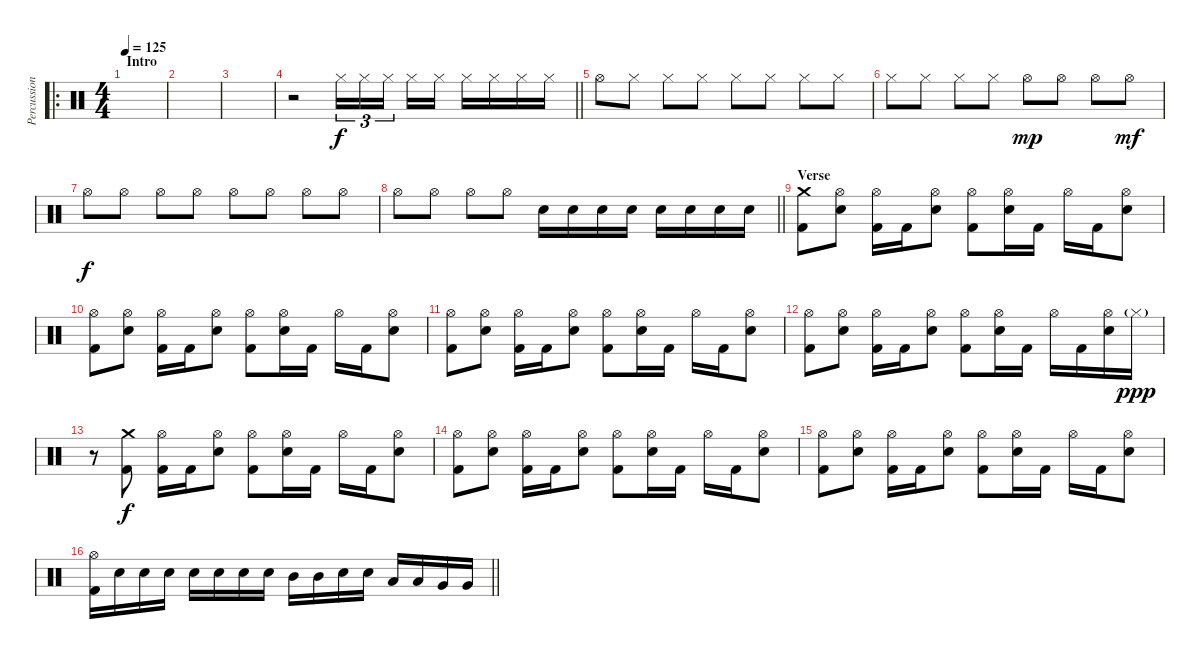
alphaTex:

\track ("Percussion" "Percussion") {instrument percussion}
\staff {score}
\articulation defaults
\ro
\ts (4 4)
\section ("" "Intro")
\tempo 125
\clef neutral
\ks c
|
|
|
\barLineRight lightlight
r.2 "Hi-Hat (closed)".16{tu (3 2)} "Hi-Hat (closed)".16{tu (3 2)} "Hi-Hat (closed)".16{tu (3 2) beam splitsecondary} "Hi-Hat (closed)".16 "Hi-Hat (closed)".16 "Hi-Hat (closed)".16 "Hi-Hat (closed)".16 "Hi-Hat (closed)".16 "Hi-Hat (closed)".16 |
"Hi-Hat (open)".8 "Hi-Hat (closed)".8 "Hi-Hat (closed)".8 "Hi-Hat (closed)".8 "Hi-Hat (closed)".8 "Hi-Hat (closed)".8 "Hi-Hat (closed)".8 "Hi-Hat (closed)".8 |
"Hi-Hat (closed)".8 "Hi-Hat (closed)".8 "Hi-Hat (closed)".8 "Hi-Hat (closed)".8 "Hi-Hat (open)".8{dy mp} "Hi-Hat (open)".8 "Hi-Hat (open)".8 "Hi-Hat (open)".8{dy mf} |
"Hi-Hat (open)".8{dy f} "Hi-Hat (open)".8 "Hi-Hat (open)".8 "Hi-Hat (open)".8 "Hi-Hat (open)".8 "Hi-Hat (open)".8 "Hi-Hat (open)".8 "Hi-Hat (open)".8 |
\barLineRight lightlight "Hi-Hat (open)".8 "Hi-Hat (open)".8 "Hi-Hat (open)".8 "Hi-Hat (open)".8 "Electric Snare (hit)".16 "Electric Snare (hit)".16 "Electric Snare (hit)".16 "Electric Snare (hit)".16 "Electric Snare (hit)".16 "Electric Snare (hit)".16 "Electric Snare (hit)".16 "Electric Snare (hit)".16
|
\section ("" "Verse")
("Crash medium (hit)" "Kick (hit) 2").8 ("Hi-Hat (open)" "Electric Snare (hit)").8 ("Hi-Hat (open)" "Kick (hit) 2").16 "Kick (hit) 2".16 ("Hi-Hat (open)" "Electric Snare (hit)").8 ("Hi-Hat (open)" "Kick (hit) 2").8 ("Hi-Hat (open)" "Electric Snare (hit)").16 "Kick (hit) 2".16 "Hi-Hat (open)".16 "Kick (hit) 2".16 ("Hi-Hat (open)" "Electric Snare (hit)").8 |
("Hi-Hat (open)" "Kick (hit) 2").8 ("Hi-Hat (open)" "Electric Snare (hit)").8 ("Hi-Hat (open)" "Kick (hit) 2").16 "Kick (hit) 2".16 ("Hi-Hat (open)" "Electric Snare (hit)").8 ("Hi-Hat (open)" "Kick (hit) 2").8 ("Hi-Hat (open)" "Electric Snare (hit)").16 "Kick (hit) 2".16 "Hi-Hat (open)".16 "Kick (hit) 2".16 ("Hi-Hat (open)" "Electric Snare (hit)").8 |
("Hi-Hat (open)" "Kick (hit) 2").8 ("Hi-Hat (open)" "Electric Snare (hit)").8 ("Hi-Hat (open)" "Kick (hit) 2").16 "Kick (hit) 2".16 ("Hi-Hat (open)" "Electric Snare (hit)").8 ("Hi-Hat (open)" "Kick (hit) 2").8 ("Hi-Hat (open)" "Electric Snare (hit)").16 "Kick (hit) 2".16 "Hi-Hat (open)".16 "Kick (hit) 2".16 ("Hi-Hat (open)" "Electric Snare (hit)").8 |
("Hi-Hat (open)" "Kick (hit) 2").8 ("Hi-Hat (open)" "Electric Snare (hit)").8 ("Hi-Hat (open)" "Kick (hit) 2").16 "Kick (hit) 2".16 ("Hi-Hat (open)" "Electric Snare (hit)").8 ("Hi-Hat (open)" "Kick (hit) 2").8 ("Hi-Hat (open)" "Electric Snare (hit)").16 "Kick (hit) 2".16 "Hi-Hat (open)".16 "Kick (hit) 2".16 ("Hi-Hat (open)" "Electric Snare (hit)").16 "Hi-Hat (closed)"{g}.16{dy ppp} |
r.8 ("Crash medium (hit)" "Kick (hit) 2").8{dy f} ("Hi-Hat (open)" "Kick (hit) 2").16 "Kick (hit) 2".16 ("Hi-Hat (open)" "Electric Snare (hit)").8 ("Hi-Hat (open)" "Kick (hit) 2").8 ("Hi-Hat (open)" "Electric Snare (hit)").16 "Kick (hit) 2".16 "Hi-Hat (open)".16 "Kick (hit) 2".16 ("Hi-Hat (open)" "Electric Snare (hit)").8 |
("Hi-Hat (open)" "Kick (hit) 2").8 ("Hi-Hat (open)" "Electric Snare (hit)").8 ("Hi-Hat (open)" "Kick (hit) 2").16 "Kick (hit) 2".16 ("Hi-Hat (open)" "Electric Snare (hit)").8 ("Hi-Hat (open)" "Kick (hit) 2").8 ("Hi-Hat (open)" "Electric Snare (hit)").16 "Kick (hit) 2".16 "Hi-Hat (open)".16 "Kick (hit) 2".16 ("Hi-Hat (open)" "Electric Snare (hit)").8 |
("Hi-Hat (open)" "Kick (hit) 2").8 ("Hi-Hat (open)" "Electric Snare (hit)").8 ("Hi-Hat (open)" "Kick (hit) 2").16 "Kick (hit) 2".16 ("Hi-Hat (open)" "Electric Snare (hit)").8 ("Hi-Hat (open)" "Kick (hit) 2").8 ("Hi-Hat (open)" "Electric Snare (hit)").16 "Kick (hit) 2".16 "Hi-Hat (open)".16 "Kick (hit) 2".16 ("Hi-Hat (open)" "Electric Snare (hit)").8 |
\barLineRight lightlight
("Hi-Hat (open)" "Kick (hit) 2").16 "Electric Snare (hit)".16 "Electric Snare (hit)".16 "Electric Snare (hit)".16 "Electric Snare (hit)".16 "Electric Snare (hit)".16 "Electric Snare (hit)".16 "Electric Snare (hit)".16 "Mid Tom (hit)".16 "Mid Tom (hit)".16 "Electric Snare (hit)".16 "Electric Snare (hit)".16 "Low Tom (hit)".16 "Low Tom (hit)".16 "Very Low Tom (hit)".16 "Very Low Tom (hit)".16
